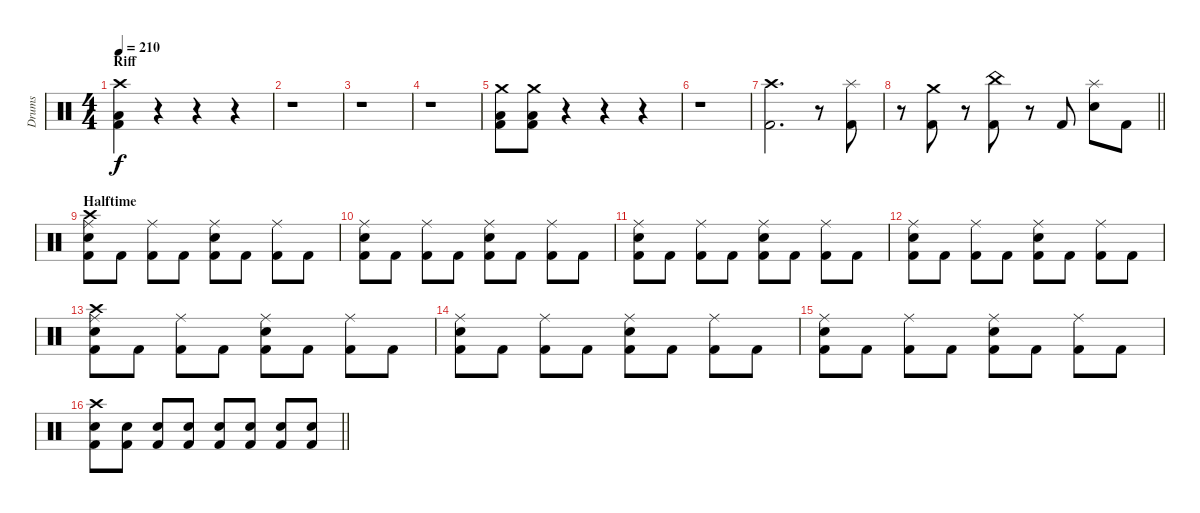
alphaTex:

\track ("Drums" "Drums") {instrument percussion}
\staff {score}
\articulation defaults
\ts (4 4)
\section ("" "Riff")
\tempo 210
\clef neutral
\ks c
("Crash high (hit)" "Low Floor Tom (hit)" "Kick (hit) 2").4{dy f} r.4 r.4 r.4 |
r.1 |
r.1 |
r.1 |
("Crash medium (hit)" "Low Floor Tom (hit)" "Kick (hit) 2").8 ("Crash medium (hit)" "Low Floor Tom (hit)" "Kick (hit) 2").8 r.4 r.4 r.4 |
r.1 |
("Crash high (hit)" "Kick (hit) 2").2{d} r.8 ("Splash (hit)" "Kick (hit) 2").8 |
\barLineRight lightlight
r.8 ("Crash medium (hit)" "Kick (hit) 2").8 r.8 ("China (hit)" "Kick (hit) 2").8 r.8 "Kick (hit) 2".8 ("Splash (hit)" "Snare (hit) 2").8 "Kick (hit) 2".8 |
\section ("" "Halftime")
("Crash high (hit)" "Ride (middle)" "Snare (hit) 2" "Kick (hit) 2").8 "Kick (hit) 2".8 ("Ride (middle)" "Kick (hit) 2").8 "Kick (hit) 2".8 ("Ride (middle)" "Snare (hit) 2" "Kick (hit) 2").8 "Kick (hit) 2".8 ("Ride (middle)" "Kick (hit) 2").8 "Kick (hit) 2".8 |
("Ride (middle)" "Snare (hit) 2" "Kick (hit) 2").8 "Kick (hit) 2".8 ("Ride (middle)" "Kick (hit) 2").8 "Kick (hit) 2".8 ("Ride (middle)" "Snare (hit) 2" "Kick (hit) 2").8 "Kick (hit) 2".8 ("Ride (middle)" "Kick (hit) 2").8 "Kick (hit) 2".8 |
("Ride (middle)" "Snare (hit) 2" "Kick (hit) 2").8 "Kick (hit) 2".8 ("Ride (middle)" "Kick (hit) 2").8 "Kick (hit) 2".8 ("Ride (middle)" "Snare (hit) 2" "Kick (hit) 2").8 "Kick (hit) 2".8 ("Ride (middle)" "Kick (hit) 2").8 "Kick (hit) 2".8 |
("Ride (middle)" "Snare (hit) 2" "Kick (hit) 2").8 "Kick (hit) 2".8 ("Ride (middle)" "Kick (hit) 2").8 "Kick (hit) 2".8 ("Ride (middle)" "Snare (hit) 2" "Kick (hit) 2").8 "Kick (hit) 2".8 ("Ride (middle)" "Kick (hit) 2").8 "Kick (hit) 2".8 |
("Crash high (hit)" "Ride (middle)" "Snare (hit) 2" "Kick (hit) 2").8 "Kick (hit) 2".8 ("Ride (middle)" "Kick (hit) 2").8 "Kick (hit) 2".8 ("Ride (middle)" "Snare (hit) 2" "Kick (hit) 2").8 "Kick (hit) 2".8 ("Ride (middle)" "Kick (hit) 2").8 "Kick (hit) 2".8 |
("Ride (middle)" "Snare (hit) 2" "Kick (hit) 2").8 "Kick (hit) 2".8 ("Ride (middle)" "Kick (hit) 2").8 "Kick (hit) 2".8 ("Ride (middle)" "Snare (hit) 2" "Kick (hit) 2").8 "Kick (hit) 2".8 ("Ride (middle)" "Kick (hit) 2").8 "Kick (hit) 2".8 |
("Ride (middle)" "Snare (hit) 2" "Kick (hit) 2").8 "Kick (hit) 2".8 ("Ride (middle)" "Kick (hit) 2").8 "Kick (hit) 2".8 ("Ride (middle)" "Snare (hit) 2" "Kick (hit) 2").8 "Kick (hit) 2".8 ("Ride (middle)" "Kick (hit) 2").8 "Kick (hit) 2".8 |
\barLineRight lightlight
("Crash high (hit)" "Snare (hit) 2" "Kick (hit) 2").8 ("Snare (hit) 2" "Kick (hit) 2").8 ("Snare (hit) 2" "Kick (hit) 2").8 ("Snare (hit) 2" "Kick (hit) 2").8 ("Snare (hit) 2" "Kick (hit) 2").8 ("Snare (hit) 2" "Kick (hit) 2").8 ("Snare (hit) 2" "Kick (hit) 2").8 ("Snare (hit) 2" "Kick (hit) 2").8
